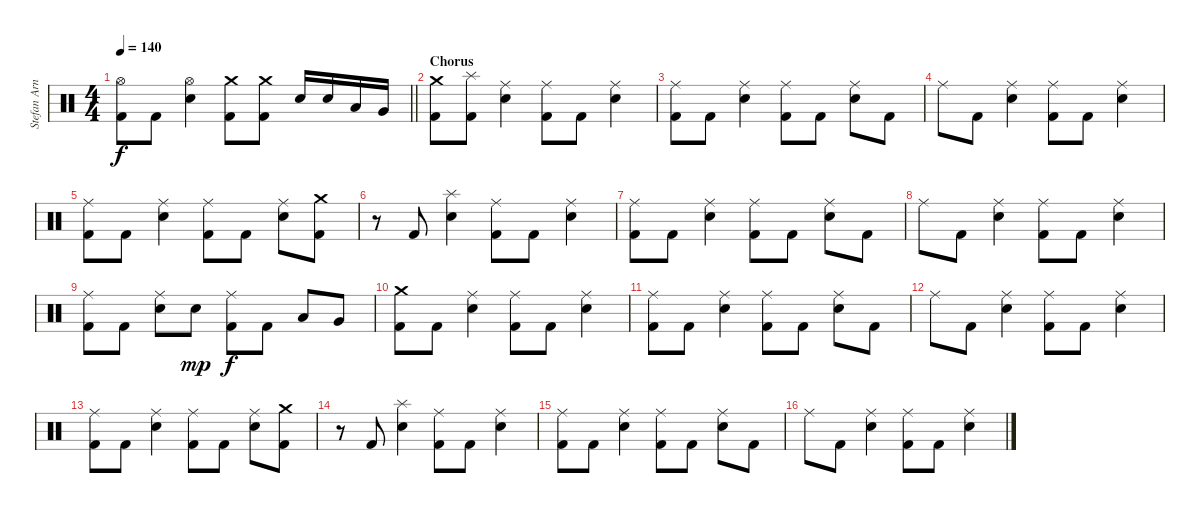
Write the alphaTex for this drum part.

\track ("Stefan Arnold" "Stefan Arn") {instrument percussion}
\staff {score}
\articulation defaults
\ts (4 4)
\tempo 140
\clef neutral
\barLineRight lightlight
\ks c
("Hi-Hat (open)" "Kick (hit) 2").8{dy f} "Kick (hit) 2".8 ("Hi-Hat (open)" "Electric Snare (hit)").4 ("Crash medium (hit)" "Kick (hit) 2").8 ("Crash medium (hit)" "Kick (hit) 2").8 "Electric Snare (hit)".16 "Electric Snare (hit)".16 "Low Tom (hit)".16 "Very Low Tom (hit)".16 |
\section ("" "Chorus")
("Crash medium (hit)" "Kick (hit) 2").8 ("Splash (hit)" "Kick (hit) 2").8 ("Ride (middle)" "Electric Snare (hit)").4 ("Ride (middle)" "Kick (hit) 2").8 "Kick (hit) 2".8 ("Ride (middle)" "Electric Snare (hit)").4 |
("Ride (middle)" "Kick (hit) 2").8 "Kick (hit) 2".8 ("Ride (middle)" "Electric Snare (hit)").4 ("Ride (middle)" "Kick (hit) 2").8 "Kick (hit) 2".8 ("Ride (middle)" "Electric Snare (hit)").8 "Kick (hit) 2".8 |
"Ride (middle)".8 "Kick (hit) 2".8 ("Ride (middle)" "Electric Snare (hit)").4 ("Ride (middle)" "Kick (hit) 2").8 "Kick (hit) 2".8 ("Ride (middle)" "Electric Snare (hit)").4 |
("Ride (middle)" "Kick (hit) 2").8 "Kick (hit) 2".8 ("Ride (middle)" "Electric Snare (hit)").4 ("Ride (middle)" "Kick (hit) 2").8 "Kick (hit) 2".8 ("Ride (middle)" "Electric Snare (hit)").8 ("Crash medium (hit)" "Kick (hit) 2").8 |
r.8 "Kick (hit) 2".8 ("Splash (hit)" "Electric Snare (hit)").4 ("Ride (middle)" "Kick (hit) 2").8 "Kick (hit) 2".8 ("Ride (middle)" "Electric Snare (hit)").4 |
("Ride (middle)" "Kick (hit) 2").8 "Kick (hit) 2".8 ("Ride (middle)" "Electric Snare (hit)").4 ("Ride (middle)" "Kick (hit) 2").8 "Kick (hit) 2".8 ("Ride (middle)" "Electric Snare (hit)").8 "Kick (hit) 2".8 |
"Ride (middle)".8 "Kick (hit) 2".8 ("Ride (middle)" "Electric Snare (hit)").4 ("Ride (middle)" "Kick (hit) 2").8 "Kick (hit) 2".8 ("Ride (middle)" "Electric Snare (hit)").4 |
("Ride (middle)" "Kick (hit) 2").8 "Kick (hit) 2".8 ("Ride (middle)" "Electric Snare (hit)").8 "Electric Snare (hit)".8{dy mp} ("Ride (middle)" "Kick (hit) 2").8{dy f} "Kick (hit) 2".8 "Low Tom (hit)".8 "Very Low Tom (hit)".8 |
("Crash medium (hit)" "Kick (hit) 2").8 "Kick (hit) 2".8 ("Ride (middle)" "Electric Snare (hit)").4 ("Ride (middle)" "Kick (hit) 2").8 "Kick (hit) 2".8 ("Ride (middle)" "Electric Snare (hit)").4 |
("Ride (middle)" "Kick (hit) 2").8 "Kick (hit) 2".8 ("Ride (middle)" "Electric Snare (hit)").4 ("Ride (middle)" "Kick (hit) 2").8 "Kick (hit) 2".8 ("Ride (middle)" "Electric Snare (hit)").8 "Kick (hit) 2".8 |
"Ride (middle)".8 "Kick (hit) 2".8 ("Ride (middle)" "Electric Snare (hit)").4 ("Ride (middle)" "Kick (hit) 2").8 "Kick (hit) 2".8 ("Ride (middle)" "Electric Snare (hit)").4 |
("Ride (middle)" "Kick (hit) 2").8 "Kick (hit) 2".8 ("Ride (middle)" "Electric Snare (hit)").4 ("Ride (middle)" "Kick (hit) 2").8 "Kick (hit) 2".8 ("Ride (middle)" "Electric Snare (hit)").8 ("Crash medium (hit)" "Kick (hit) 2").8 |
r.8 "Kick (hit) 2".8 ("Splash (hit)" "Electric Snare (hit)").4 ("Ride (middle)" "Kick (hit) 2").8 "Kick (hit) 2".8 ("Ride (middle)" "Electric Snare (hit)").4 |
("Ride (middle)" "Kick (hit) 2").8 "Kick (hit) 2".8 ("Ride (middle)" "Electric Snare (hit)").4 ("Ride (middle)" "Kick (hit) 2").8 "Kick (hit) 2".8 ("Ride (middle)" "Electric Snare (hit)").8 "Kick (hit) 2".8 |
"Ride (middle)".8 "Kick (hit) 2".8 ("Ride (middle)" "Electric Snare (hit)").4 ("Ride (middle)" "Kick (hit) 2").8 "Kick (hit) 2".8 ("Ride (middle)" "Electric Snare (hit)").4
